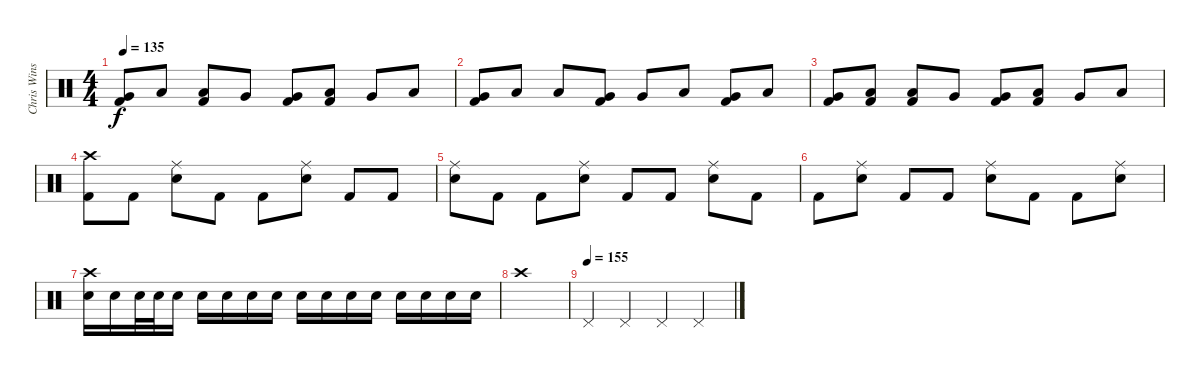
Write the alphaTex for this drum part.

\track ("Chris Winship (Drums)" "Chris Wins") {instrument percussion}
\staff {score}
\articulation defaults
\ts (4 4)
\tempo 135
\clef neutral
\ks c
("Very Low Tom (hit)" "Kick (hit) 2").8{dy f} "Low Tom (hit)".8 ("Low Tom (hit)" "Kick (hit) 2").8 "Very Low Tom (hit)".8 ("Very Low Tom (hit)" "Kick (hit) 2").8 ("Low Tom (hit)" "Kick (hit) 2").8 "Very Low Tom (hit)".8 "Low Floor Tom (hit)".8 |
("Very Low Tom (hit)" "Kick (hit) 2").8 "Low Tom (hit)".8 "Low Tom (hit)".8 ("Very Low Tom (hit)" "Kick (hit) 2").8 "Very Low Tom (hit)".8 "Low Tom (hit)".8 ("Very Low Tom (hit)" "Kick (hit) 2").8 "Low Floor Tom (hit)".8 |
("Very Low Tom (hit)" "Kick (hit) 2").8 ("Low Tom (hit)" "Kick (hit) 2").8 ("Low Tom (hit)" "Kick (hit) 2").8 "Very Low Tom (hit)".8 ("Very Low Tom (hit)" "Kick (hit) 2").8 ("Low Tom (hit)" "Kick (hit) 2").8 "Very Low Tom (hit)".8 "Low Floor Tom (hit)".8 |
("Crash high (hit)" "Kick (hit) 2").8 "Kick (hit) 2".8 ("Ride (middle)" "Snare (hit) 2").8 "Kick (hit) 2".8 "Kick (hit) 2".8 ("Ride (middle)" "Snare (hit) 2").8 "Kick (hit) 2".8 "Kick (hit) 2".8 |
("Ride (middle)" "Snare (hit) 2").8 "Kick (hit) 2".8 "Kick (hit) 2".8 ("Ride (middle)" "Snare (hit) 2").8 "Kick (hit) 2".8 "Kick (hit) 2".8 ("Ride (middle)" "Snare (hit) 2").8 "Kick (hit) 2".8 |
"Kick (hit) 2".8 ("Ride (middle)" "Snare (hit) 2").8 "Kick (hit) 2".8 "Kick (hit) 2".8 ("Ride (middle)" "Snare (hit) 2").8 "Kick (hit) 2".8 "Kick (hit) 2".8 ("Ride (middle)" "Snare (hit) 2").8 |
("Crash high (hit)" "Snare (hit) 2").16 "Snare (hit) 2".16 "Snare (hit) 2".32 "Snare (hit) 2".32 "Snare (hit) 2".16 "Snare (hit) 2".16 "Snare (hit) 2".16 "Snare (hit) 2".16 "Snare (hit) 2".16 "Snare (hit) 2".16 "Snare (hit) 2".16 "Snare (hit) 2".16 "Snare (hit) 2".16 "Snare (hit) 2".16 "Snare (hit) 2".16 "Snare (hit) 2".16 "Snare (hit) 2".16 |
"Crash high (hit)".1 |
\tempo (155)
"Pedal Hi-Hat (hit)".4 "Pedal Hi-Hat (hit)".4 "Pedal Hi-Hat (hit)".4 "Pedal Hi-Hat (hit)".4
